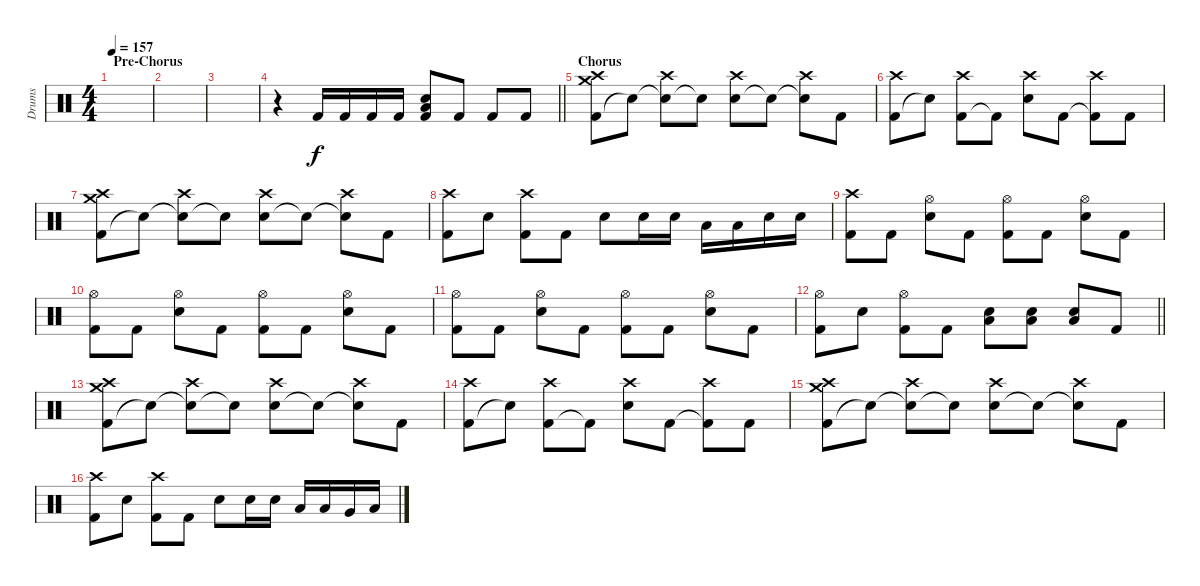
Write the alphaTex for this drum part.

\track ("Drums" "Drums") {instrument percussion}
\staff {score}
\articulation defaults
\ts (4 4)
\section ("" "Pre-Chorus")
\tempo 157
\clef neutral
\ks c
|
|
|
\barLineRight lightlight
r.4 "Kick (hit) 2".16 "Kick (hit) 2".16 "Kick (hit) 2".16 "Kick (hit) 2".16 ("Kick (hit) 2" "Low Tom (hit)" "Electric Snare (hit)").8 "Kick (hit) 2".8 "Kick (hit) 2".8 "Kick (hit) 2".8 |
\section ("" "Chorus")
("Kick (hit) 2" "Crash medium (hit)" "Crash high (hit)").8 "Snare (hit)"{t}.8 ("Snare (hit)"{t} "Crash high (hit)").8 "Electric Snare (hit)"{t}.8 ("Electric Snare (hit)" "Crash high (hit)").8 "Snare (hit)"{t}.8 ("Snare (hit)"{t} "Crash high (hit)").8 "Kick (hit) 2".8 |
("Kick (hit) 2" "Crash high (hit)").8 "Snare (hit)"{t}.8 ("Kick (hit) 2" "Crash high (hit)").8 "Kick (hit) 2"{t}.8 ("Electric Snare (hit)" "Crash high (hit)").8 "Kick (hit) 2".8 ("Kick (hit) 2"{t} "Crash high (hit)").8 "Kick (hit) 2".8 |
("Kick (hit) 2" "Crash medium (hit)" "Crash high (hit)").8 "Snare (hit)"{t}.8 ("Snare (hit)"{t} "Crash high (hit)").8 "Electric Snare (hit)"{t}.8 ("Electric Snare (hit)" "Crash high (hit)").8 "Snare (hit)"{t}.8 ("Snare (hit)"{t} "Crash high (hit)").8 "Kick (hit) 2".8 |
("Kick (hit) 2" "Crash high (hit)").8 "Electric Snare (hit)".8 ("Kick (hit) 2" "Crash high (hit)").8 "Kick (hit) 2".8 "Electric Snare (hit)".8 "Electric Snare (hit)".16 "Electric Snare (hit)".16 "Low Tom (hit)".16 "Low Tom (hit)".16 "Electric Snare (hit)".16 "Electric Snare (hit)".16 |
("Kick (hit) 2" "Crash high (hit)").8 "Kick (hit) 2".8 ("Electric Snare (hit)" "Hi-Hat (open)").8 "Kick (hit) 2".8 ("Kick (hit) 2" "Hi-Hat (open)").8 "Kick (hit) 2".8 ("Electric Snare (hit)" "Hi-Hat (open)").8 "Kick (hit) 2".8 |
("Kick (hit) 2" "Hi-Hat (open)").8 "Kick (hit) 2".8 ("Electric Snare (hit)" "Hi-Hat (open)").8 "Kick (hit) 2".8 ("Kick (hit) 2" "Hi-Hat (open)").8 "Kick (hit) 2".8 ("Electric Snare (hit)" "Hi-Hat (open)").8 "Kick (hit) 2".8 |
("Kick (hit) 2" "Hi-Hat (open)").8 "Kick (hit) 2".8 ("Electric Snare (hit)" "Hi-Hat (open)").8 "Kick (hit) 2".8 ("Kick (hit) 2" "Hi-Hat (open)").8 "Kick (hit) 2".8 ("Electric Snare (hit)" "Hi-Hat (open)").8 "Kick (hit) 2".8 |
\barLineRight lightlight
("Kick (hit) 2" "Hi-Hat (open)").8 "Electric Snare (hit)".8 ("Kick (hit) 2" "Hi-Hat (open)").8 "Kick (hit) 2".8 ("Electric Snare (hit)" "Low Floor Tom (hit)").8 ("Electric Snare (hit)" "Low Floor Tom (hit)").8 ("Electric Snare (hit)" "Low Floor Tom (hit)").8 "Kick (hit) 2".8 |
("Kick (hit) 2" "Crash medium (hit)" "Crash high (hit)").8 "Snare (hit)"{t}.8 ("Snare (hit)"{t} "Crash high (hit)").8 "Electric Snare (hit)"{t}.8 ("Electric Snare (hit)" "Crash high (hit)").8 "Snare (hit)"{t}.8 ("Snare (hit)"{t} "Crash high (hit)").8 "Kick (hit) 2".8 |
("Kick (hit) 2" "Crash high (hit)").8 "Snare (hit)"{t}.8 ("Kick (hit) 2" "Crash high (hit)").8 "Kick (hit) 2"{t}.8 ("Electric Snare (hit)" "Crash high (hit)").8 "Kick (hit) 2".8 ("Kick (hit) 2"{t} "Crash high (hit)").8 "Kick (hit) 2".8 |
("Kick (hit) 2" "Crash medium (hit)" "Crash high (hit)").8 "Snare (hit)"{t}.8 ("Snare (hit)"{t} "Crash high (hit)").8 "Electric Snare (hit)"{t}.8 ("Electric Snare (hit)" "Crash high (hit)").8 "Snare (hit)"{t}.8 ("Snare (hit)"{t} "Crash high (hit)").8 "Kick (hit) 2".8 |
("Kick (hit) 2" "Crash high (hit)").8 "Electric Snare (hit)".8 ("Kick (hit) 2" "Crash high (hit)").8 "Kick (hit) 2".8 "Electric Snare (hit)".8 "Electric Snare (hit)".16 "Electric Snare (hit)".16 "Low Tom (hit)".16 "Low Tom (hit)".16 "Very Low Tom (hit)".16 "Low Floor Tom (hit)".16
